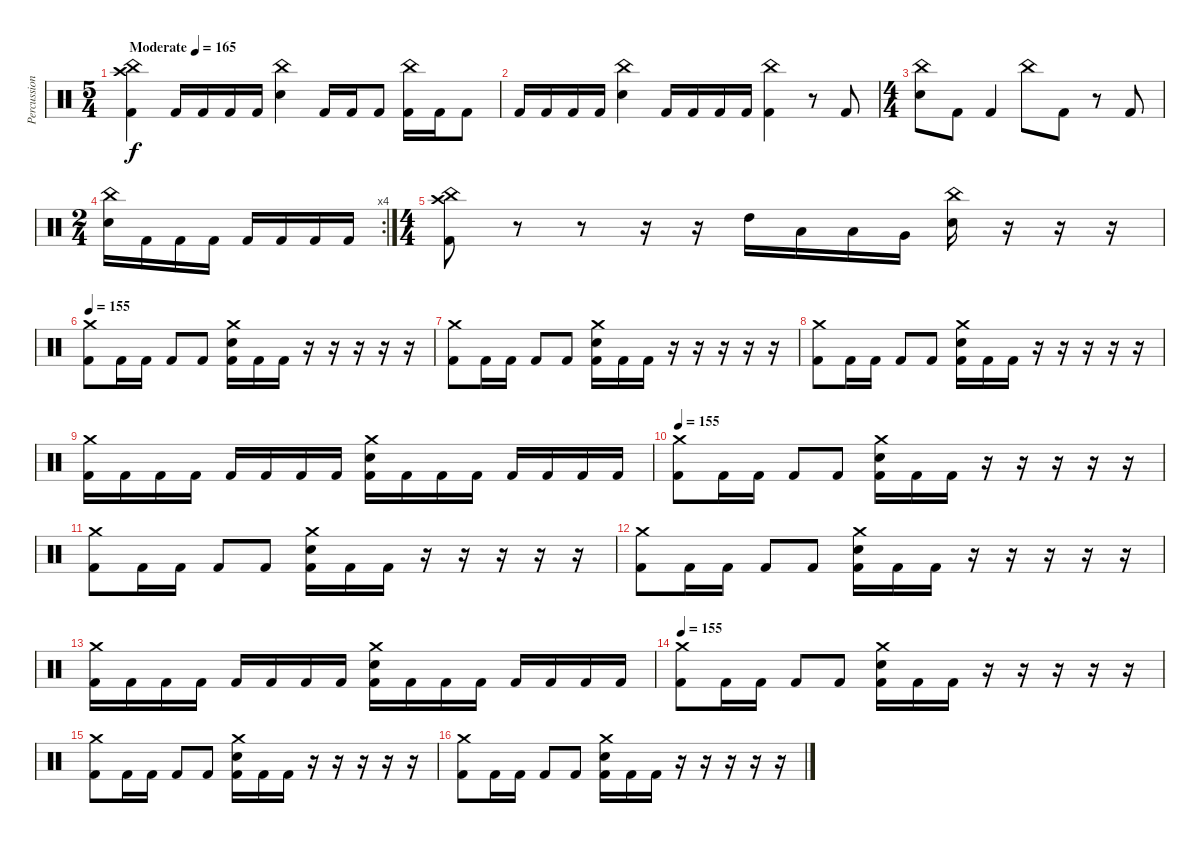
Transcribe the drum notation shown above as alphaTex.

\track ("Percussion" "Percussion") {instrument percussion}
\staff {score}
\articulation defaults
\ts (5 4)
\tempo (165 "Moderate")
\clef neutral
\ks c
("Crash high (hit)" "China (hit)" "Kick (hit) 2").4{dy f} "Kick (hit) 2".16 "Kick (hit) 2".16 "Kick (hit) 2".16 "Kick (hit) 2".16 ("China (hit)" "Electric Snare (hit)").4 "Kick (hit) 2".16 "Kick (hit) 2".16 "Kick (hit) 2".8 ("China (hit)" "Kick (hit) 2").16 "Kick (hit) 2".16 "Kick (hit) 2".8 |
"Kick (hit) 2".16 "Kick (hit) 2".16 "Kick (hit) 2".16 "Kick (hit) 2".16 ("China (hit)" "Electric Snare (hit)").4 "Kick (hit) 2".16 "Kick (hit) 2".16 "Kick (hit) 2".16 "Kick (hit) 2".16 ("China (hit)" "Kick (hit) 2").4 r.8 "Kick (hit) 2".8 |
\ts (4 4)
("China (hit)" "Electric Snare (hit)").8 "Kick (hit) 2".8 "Kick (hit) 2".4 "China (hit)".8 "Kick (hit) 2".8 r.8 "Kick (hit) 2".8 |
\rc 4
\ts (2 4)
("China (hit)" "Electric Snare (hit)").16 "Kick (hit) 2".16 "Kick (hit) 2".16 "Kick (hit) 2".16 "Kick (hit) 2".16 "Kick (hit) 2".16 "Kick (hit) 2".16 "Kick (hit) 2".16 |
\ts (4 4)
("Crash high (hit)" "China (hit)" "Kick (hit) 2").8 r.8 r.8 r.16 r.16 "High Tom (hit)".16 "Low Tom (hit)".16 "Low Tom (hit)".16 "Very Low Tom (hit)".16 ("China (hit)" "Electric Snare (hit)").16 r.16 r.16 r.16 |
\tempo 155
("Crash medium (hit)" "Kick (hit) 2").8 "Kick (hit) 2".16 "Kick (hit) 2".16 "Kick (hit) 2".8 "Kick (hit) 2".8 ("Crash medium (hit)" "Electric Snare (hit)" "Kick (hit) 2").16 "Kick (hit) 2".16 "Kick (hit) 2".16 r.16 r.16 r.16 r.16 r.16 |
("Crash medium (hit)" "Kick (hit) 2").8 "Kick (hit) 2".16 "Kick (hit) 2".16 "Kick (hit) 2".8 "Kick (hit) 2".8 ("Crash medium (hit)" "Electric Snare (hit)" "Kick (hit) 2").16 "Kick (hit) 2".16 "Kick (hit) 2".16 r.16 r.16 r.16 r.16 r.16 |
("Crash medium (hit)" "Kick (hit) 2").8 "Kick (hit) 2".16 "Kick (hit) 2".16 "Kick (hit) 2".8 "Kick (hit) 2".8 ("Crash medium (hit)" "Electric Snare (hit)" "Kick (hit) 2").16 "Kick (hit) 2".16 "Kick (hit) 2".16 r.16 r.16 r.16 r.16 r.16 |
("Crash medium (hit)" "Kick (hit) 2").16 "Kick (hit) 2".16 "Kick (hit) 2".16 "Kick (hit) 2".16 "Kick (hit) 2".16 "Kick (hit) 2".16 "Kick (hit) 2".16 "Kick (hit) 2".16 ("Crash medium (hit)" "Electric Snare (hit)" "Kick (hit) 2").16 "Kick (hit) 2".16 "Kick (hit) 2".16 "Kick (hit) 2".16 "Kick (hit) 2".16 "Kick (hit) 2".16 "Kick (hit) 2".16 "Kick (hit) 2".16 |
\tempo 155
("Crash medium (hit)" "Kick (hit) 2").8 "Kick (hit) 2".16 "Kick (hit) 2".16 "Kick (hit) 2".8 "Kick (hit) 2".8 ("Crash medium (hit)" "Electric Snare (hit)" "Kick (hit) 2").16 "Kick (hit) 2".16 "Kick (hit) 2".16 r.16 r.16 r.16 r.16 r.16 |
("Crash medium (hit)" "Kick (hit) 2").8 "Kick (hit) 2".16 "Kick (hit) 2".16 "Kick (hit) 2".8 "Kick (hit) 2".8 ("Crash medium (hit)" "Electric Snare (hit)" "Kick (hit) 2").16 "Kick (hit) 2".16 "Kick (hit) 2".16 r.16 r.16 r.16 r.16 r.16 |
("Crash medium (hit)" "Kick (hit) 2").8 "Kick (hit) 2".16 "Kick (hit) 2".16 "Kick (hit) 2".8 "Kick (hit) 2".8 ("Crash medium (hit)" "Electric Snare (hit)" "Kick (hit) 2").16 "Kick (hit) 2".16 "Kick (hit) 2".16 r.16 r.16 r.16 r.16 r.16 |
("Crash medium (hit)" "Kick (hit) 2").16 "Kick (hit) 2".16 "Kick (hit) 2".16 "Kick (hit) 2".16 "Kick (hit) 2".16 "Kick (hit) 2".16 "Kick (hit) 2".16 "Kick (hit) 2".16 ("Crash medium (hit)" "Electric Snare (hit)" "Kick (hit) 2").16 "Kick (hit) 2".16 "Kick (hit) 2".16 "Kick (hit) 2".16 "Kick (hit) 2".16 "Kick (hit) 2".16 "Kick (hit) 2".16 "Kick (hit) 2".16 |
\tempo 155
("Crash medium (hit)" "Kick (hit) 2").8 "Kick (hit) 2".16 "Kick (hit) 2".16 "Kick (hit) 2".8 "Kick (hit) 2".8 ("Crash medium (hit)" "Electric Snare (hit)" "Kick (hit) 2").16 "Kick (hit) 2".16 "Kick (hit) 2".16 r.16 r.16 r.16 r.16 r.16 |
("Crash medium (hit)" "Kick (hit) 2").8 "Kick (hit) 2".16 "Kick (hit) 2".16 "Kick (hit) 2".8 "Kick (hit) 2".8 ("Crash medium (hit)" "Electric Snare (hit)" "Kick (hit) 2").16 "Kick (hit) 2".16 "Kick (hit) 2".16 r.16 r.16 r.16 r.16 r.16 |
("Crash medium (hit)" "Kick (hit) 2").8 "Kick (hit) 2".16 "Kick (hit) 2".16 "Kick (hit) 2".8 "Kick (hit) 2".8 ("Crash medium (hit)" "Electric Snare (hit)" "Kick (hit) 2").16 "Kick (hit) 2".16 "Kick (hit) 2".16 r.16 r.16 r.16 r.16 r.16
